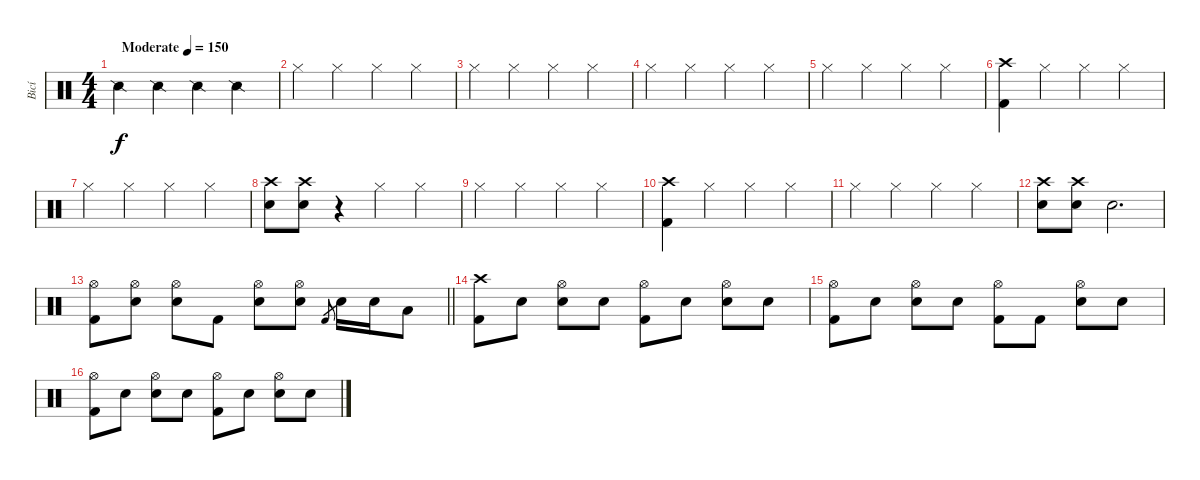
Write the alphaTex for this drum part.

\track ("Bicí" "Bicí") {instrument percussion}
\staff {score}
\articulation defaults
\ts (4 4)
\tempo (150 "Moderate")
\clef neutral
\ks c "Snare (side stick) 2".4{dy f} "Snare (side stick) 2".4 "Snare (side stick) 2".4 "Snare (side stick) 2".4
|
"Hi-Hat (closed)".4 "Hi-Hat (closed)".4 "Hi-Hat (closed)".4 "Hi-Hat (closed)".4 |
"Hi-Hat (closed)".4 "Hi-Hat (closed)".4 "Hi-Hat (closed)".4 "Hi-Hat (closed)".4 |
"Hi-Hat (closed)".4 "Hi-Hat (closed)".4 "Hi-Hat (closed)".4 "Hi-Hat (closed)".4 |
"Hi-Hat (closed)".4 "Hi-Hat (closed)".4 "Hi-Hat (closed)".4 "Hi-Hat (closed)".4 |
("Crash high (hit)" "Kick (hit) 2").4 "Hi-Hat (closed)".4 "Hi-Hat (closed)".4 "Hi-Hat (closed)".4 |
"Hi-Hat (closed)".4 "Hi-Hat (closed)".4 "Hi-Hat (closed)".4 "Hi-Hat (closed)".4 |
("Crash high (hit)" "Electric Snare (hit)").8 ("Crash high (hit)" "Electric Snare (hit)").8 r.4 "Hi-Hat (closed)".4 "Hi-Hat (closed)".4 |
"Hi-Hat (closed)".4 "Hi-Hat (closed)".4 "Hi-Hat (closed)".4 "Hi-Hat (closed)".4 |
("Crash high (hit)" "Kick (hit) 2").4 "Hi-Hat (closed)".4 "Hi-Hat (closed)".4 "Hi-Hat (closed)".4 |
"Hi-Hat (closed)".4 "Hi-Hat (closed)".4 "Hi-Hat (closed)".4 "Hi-Hat (closed)".4 |
("Crash high (hit)" "Electric Snare (hit)").8 ("Crash high (hit)" "Electric Snare (hit)").8 "Snare (hit)".2{d} |
\barLineRight lightlight
("Hi-Hat (open)" "Kick (hit) 2").8 ("Hi-Hat (open)" "Electric Snare (hit)").8 ("Hi-Hat (open)" "Electric Snare (hit)").8 "Kick (hit) 2".8 ("Hi-Hat (open)" "Electric Snare (hit)").8 ("Hi-Hat (open)" "Electric Snare (hit)").8 "Kick (hit) 2".8{gr} "Electric Snare (hit)".16 "Electric Snare (hit)".16 "Low Tom (hit)".8 |
\section ("" "")
("Crash high (hit)" "Kick (hit) 2").8 "Snare (hit)".8 ("Hi-Hat (open)" "Electric Snare (hit)").8 "Snare (hit)".8 ("Hi-Hat (open)" "Kick (hit) 2").8 "Snare (hit)".8 ("Hi-Hat (open)" "Electric Snare (hit)").8 "Snare (hit)".8 |
("Hi-Hat (open)" "Kick (hit) 2").8 "Snare (hit)".8 ("Hi-Hat (open)" "Electric Snare (hit)").8 "Snare (hit)".8 ("Hi-Hat (open)" "Kick (hit) 2").8 "Kick (hit) 2".8 ("Hi-Hat (open)" "Electric Snare (hit)").8 "Snare (hit)".8 |
("Hi-Hat (open)" "Kick (hit) 2").8 "Snare (hit)".8 ("Hi-Hat (open)" "Electric Snare (hit)").8 "Snare (hit)".8 ("Hi-Hat (open)" "Kick (hit) 2").8 "Snare (hit)".8 ("Hi-Hat (open)" "Electric Snare (hit)").8 "Snare (hit)".8
